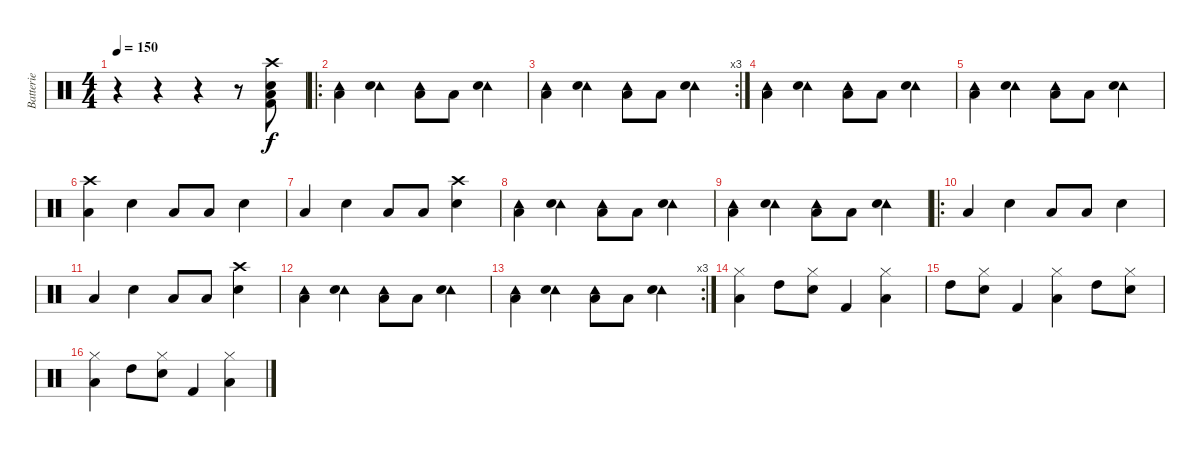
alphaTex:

\track ("Batterie" "Batterie") {instrument percussion}
\staff {score}
\articulation defaults
\ts (4 4)
\tempo 150
\clef neutral
\ks c
r.4{dy f} r.4 r.4 r.8 ("Crash high (hit)" "Electric Snare (hit)" "Kick (hit) 2" "Low Floor Tom (hit)").8 |
\ro
("Tambourine (hit)" "Low Floor Tom (hit)").4 ("Tambourine (hit)" "Electric Snare (hit)").4 ("Tambourine (hit)" "Low Floor Tom (hit)").8 "Low Floor Tom (hit)".8 ("Tambourine (hit)" "Electric Snare (hit)").4 |
\rc 3
("Tambourine (hit)" "Low Floor Tom (hit)").4 ("Tambourine (hit)" "Electric Snare (hit)").4 ("Tambourine (hit)" "Low Floor Tom (hit)").8 "Low Floor Tom (hit)".8 ("Tambourine (hit)" "Electric Snare (hit)").4 |
("Tambourine (hit)" "Low Floor Tom (hit)").4 ("Tambourine (hit)" "Electric Snare (hit)").4 ("Tambourine (hit)" "Low Floor Tom (hit)").8 "Low Floor Tom (hit)".8 ("Tambourine (hit)" "Electric Snare (hit)").4 |
("Tambourine (hit)" "Low Floor Tom (hit)").4 ("Tambourine (hit)" "Electric Snare (hit)").4 ("Tambourine (hit)" "Low Floor Tom (hit)").8 "Low Floor Tom (hit)".8 ("Tambourine (hit)" "Electric Snare (hit)").4 |
("Crash high (hit)" "Low Floor Tom (hit)").4 "Electric Snare (hit)".4 "Low Floor Tom (hit)".8 "Low Floor Tom (hit)".8 "Electric Snare (hit)".4 |
"Low Floor Tom (hit)".4 "Electric Snare (hit)".4 "Low Floor Tom (hit)".8 "Low Floor Tom (hit)".8 ("Crash high (hit)" "Electric Snare (hit)").4 |
("Tambourine (hit)" "Low Floor Tom (hit)").4 ("Tambourine (hit)" "Electric Snare (hit)").4 ("Tambourine (hit)" "Low Floor Tom (hit)").8 "Low Floor Tom (hit)".8 ("Tambourine (hit)" "Electric Snare (hit)").4 |
("Tambourine (hit)" "Low Floor Tom (hit)").4 ("Tambourine (hit)" "Electric Snare (hit)").4 ("Tambourine (hit)" "Low Floor Tom (hit)").8 "Low Floor Tom (hit)".8 ("Tambourine (hit)" "Electric Snare (hit)").4 |
\ro "Low Floor Tom (hit)".4 "Electric Snare (hit)".4 "Low Floor Tom (hit)".8 "Low Floor Tom (hit)".8 "Electric Snare (hit)".4
|
"Low Floor Tom (hit)".4 "Electric Snare (hit)".4 "Low Floor Tom (hit)".8 "Low Floor Tom (hit)".8 ("Crash high (hit)" "Electric Snare (hit)").4 |
("Tambourine (hit)" "Low Floor Tom (hit)").4 ("Tambourine (hit)" "Electric Snare (hit)").4 ("Tambourine (hit)" "Low Floor Tom (hit)").8 "Low Floor Tom (hit)".8 ("Tambourine (hit)" "Electric Snare (hit)").4 |
\rc 3
("Tambourine (hit)" "Low Floor Tom (hit)").4 ("Tambourine (hit)" "Electric Snare (hit)").4 ("Tambourine (hit)" "Low Floor Tom (hit)").8 "Low Floor Tom (hit)".8 ("Tambourine (hit)" "Electric Snare (hit)").4 |
("Hi-Hat (closed)" "Low Floor Tom (hit)").4 "High Tom (hit)".8 ("Hi-Hat (closed)" "Snare (hit) 2").8 "Kick (hit) 2".4 ("Hi-Hat (closed)" "Low Floor Tom (hit)").4 |
"High Tom (hit)".8 ("Hi-Hat (closed)" "Snare (hit) 2").8 "Kick (hit) 2".4 ("Hi-Hat (closed)" "Low Floor Tom (hit)").4 "High Tom (hit)".8 ("Hi-Hat (closed)" "Snare (hit) 2").8 |
("Hi-Hat (closed)" "Low Floor Tom (hit)").4 "High Tom (hit)".8 ("Hi-Hat (closed)" "Snare (hit) 2").8 "Kick (hit) 2".4 ("Hi-Hat (closed)" "Low Floor Tom (hit)").4
